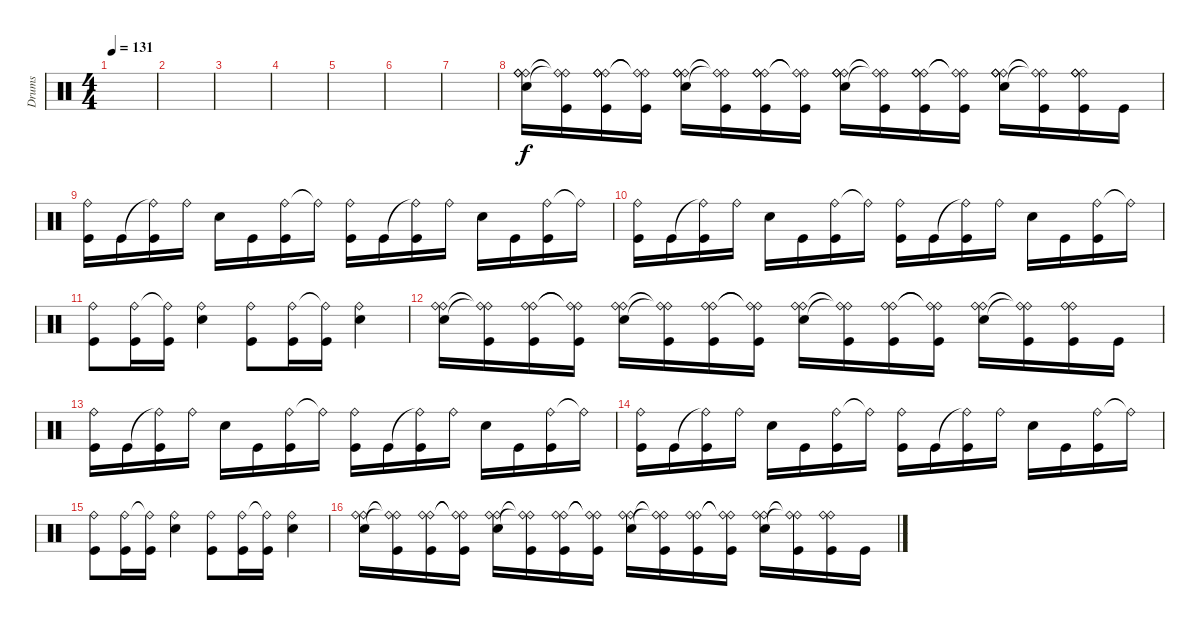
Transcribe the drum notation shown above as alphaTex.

\track ("Drums" "Drums") {instrument percussion}
\staff {score}
\articulation defaults
\ts (4 4)
\tempo 131
\clef neutral
\ks c
|
|
|
|
|
|
|
("Ride (bell)" "Snare (hit) 2" "Ride (bell)" "Ride (bell)").16 ("Ride (bell)"{t} "Ride (bell)"{t} "Kick (hit)").16 ("Ride (bell)" "Ride (bell)" "Ride (bell)" "Kick (hit)").16 ("Ride (bell)"{t} "Ride (bell)"{t} "Kick (hit)").16 ("Ride (bell)" "Snare (hit) 2" "Ride (bell)" "Ride (bell)").16 ("Ride (bell)"{t} "Ride (bell)"{t} "Kick (hit)").16 ("Ride (bell)" "Ride (bell)" "Ride (bell)" "Kick (hit)").16 ("Ride (bell)"{t} "Ride (bell)"{t} "Kick (hit)").16 ("Ride (bell)" "Snare (hit) 2" "Ride (bell)" "Ride (bell)").16 ("Ride (bell)"{t} "Ride (bell)"{t} "Kick (hit)").16 ("Ride (bell)" "Ride (bell)" "Ride (bell)" "Kick (hit)").16 ("Ride (bell)"{t} "Ride (bell)"{t} "Kick (hit)").16 ("Ride (bell)" "Snare (hit) 2" "Ride (bell)" "Ride (bell)").16 ("Ride (bell)"{t} "Ride (bell)"{t} "Kick (hit)").16 ("Ride (bell)" "Ride (bell)" "Ride (bell)" "Kick (hit)").16 "Kick (hit)".16 |
("Ride (bell)" "Kick (hit)").16 "Kick (hit)".16 ("Ride (bell)"{t} "Kick (hit)").16 "Ride (bell)".16 "Snare (hit) 2".16 "Kick (hit)".16 ("Ride (bell)" "Kick (hit)").16 "Ride (bell)"{t}.16 ("Ride (bell)" "Kick (hit)").16 "Kick (hit)".16 ("Ride (bell)"{t} "Kick (hit)").16 "Ride (bell)".16 "Snare (hit) 2".16 "Kick (hit)".16 ("Ride (bell)" "Kick (hit)").16 "Ride (bell)"{t}.16 |
("Ride (bell)" "Kick (hit)").16 "Kick (hit)".16 ("Ride (bell)"{t} "Kick (hit)").16 "Ride (bell)".16 "Snare (hit) 2".16 "Kick (hit)".16 ("Ride (bell)" "Kick (hit)").16 "Ride (bell)"{t}.16 ("Ride (bell)" "Kick (hit)").16 "Kick (hit)".16 ("Ride (bell)"{t} "Kick (hit)").16 "Ride (bell)".16 "Snare (hit) 2".16 "Kick (hit)".16 ("Ride (bell)" "Kick (hit)").16 "Ride (bell)"{t}.16 |
("Ride (bell)" "Kick (hit)").8 ("Ride (bell)" "Kick (hit)").16 ("Ride (bell)"{t} "Kick (hit)").16 ("Snare (hit) 2" "Ride (bell)").4 ("Ride (bell)" "Kick (hit)").8 ("Ride (bell)" "Kick (hit)").16 ("Ride (bell)"{t} "Kick (hit)").16 ("Snare (hit) 2" "Ride (bell)").4 |
("Snare (hit) 2" "Ride (bell)" "Ride (bell)").16 ("Ride (bell)"{t} "Ride (bell)"{t} "Kick (hit)").16 ("Ride (bell)" "Ride (bell)" "Kick (hit)").16 ("Ride (bell)"{t} "Ride (bell)"{t} "Kick (hit)").16 ("Snare (hit) 2" "Ride (bell)" "Ride (bell)").16 ("Ride (bell)"{t} "Ride (bell)"{t} "Kick (hit)").16 ("Ride (bell)" "Ride (bell)" "Kick (hit)").16 ("Ride (bell)"{t} "Ride (bell)"{t} "Kick (hit)").16 ("Snare (hit) 2" "Ride (bell)" "Ride (bell)").16 ("Ride (bell)"{t} "Ride (bell)"{t} "Kick (hit)").16 ("Ride (bell)" "Ride (bell)" "Kick (hit)").16 ("Ride (bell)"{t} "Ride (bell)"{t} "Kick (hit)").16 ("Snare (hit) 2" "Ride (bell)" "Ride (bell)").16 ("Ride (bell)"{t} "Ride (bell)"{t} "Kick (hit)").16 ("Ride (bell)" "Ride (bell)" "Kick (hit)").16 "Kick (hit)".16 |
("Ride (bell)" "Kick (hit)").16 "Kick (hit)".16 ("Ride (bell)"{t} "Kick (hit)").16 "Ride (bell)".16 "Snare (hit) 2".16 "Kick (hit)".16 ("Ride (bell)" "Kick (hit)").16 "Ride (bell)"{t}.16 ("Ride (bell)" "Kick (hit)").16 "Kick (hit)".16 ("Ride (bell)"{t} "Kick (hit)").16 "Ride (bell)".16 "Snare (hit) 2".16 "Kick (hit)".16 ("Ride (bell)" "Kick (hit)").16 "Ride (bell)"{t}.16 |
("Ride (bell)" "Kick (hit)").16 "Kick (hit)".16 ("Ride (bell)"{t} "Kick (hit)").16 "Ride (bell)".16 "Snare (hit) 2".16 "Kick (hit)".16 ("Ride (bell)" "Kick (hit)").16 "Ride (bell)"{t}.16 ("Ride (bell)" "Kick (hit)").16 "Kick (hit)".16 ("Ride (bell)"{t} "Kick (hit)").16 "Ride (bell)".16 "Snare (hit) 2".16 "Kick (hit)".16 ("Ride (bell)" "Kick (hit)").16 "Ride (bell)"{t}.16 |
("Ride (bell)" "Kick (hit)").8 ("Ride (bell)" "Kick (hit)").16 ("Ride (bell)"{t} "Kick (hit)").16 ("Snare (hit) 2" "Ride (bell)").4 ("Ride (bell)" "Kick (hit)").8 ("Ride (bell)" "Kick (hit)").16 ("Ride (bell)"{t} "Kick (hit)").16 ("Snare (hit) 2" "Ride (bell)").4 |
("Electric Snare (hit)" "Ride (bell)" "Ride (bell)").16 ("Ride (bell)"{t} "Ride (bell)"{t} "Kick (hit)").16 ("Ride (bell)" "Ride (bell)" "Kick (hit)").16 ("Ride (bell)"{t} "Ride (bell)"{t} "Kick (hit)").16 ("Electric Snare (hit)" "Ride (bell)" "Ride (bell)").16 ("Ride (bell)"{t} "Ride (bell)"{t} "Kick (hit)").16 ("Ride (bell)" "Ride (bell)" "Kick (hit)").16 ("Ride (bell)"{t} "Ride (bell)"{t} "Kick (hit)").16 ("Electric Snare (hit)" "Ride (bell)" "Ride (bell)").16 ("Ride (bell)"{t} "Ride (bell)"{t} "Kick (hit)").16 ("Ride (bell)" "Ride (bell)" "Kick (hit)").16 ("Ride (bell)"{t} "Ride (bell)"{t} "Kick (hit)").16 ("Electric Snare (hit)" "Ride (bell)" "Ride (bell)").16 ("Ride (bell)"{t} "Ride (bell)"{t} "Kick (hit)").16 ("Ride (bell)" "Ride (bell)" "Kick (hit)").16 "Kick (hit)".16
